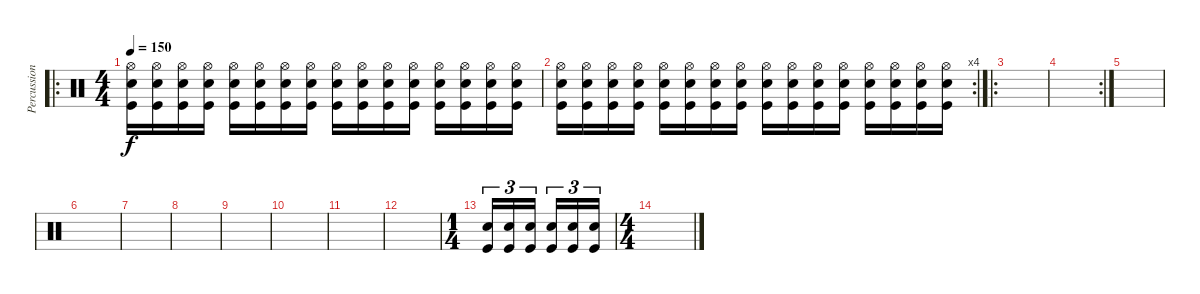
\track ("Percussion" "Percussion") {instrument percussion}
\staff {score}
\articulation defaults
\ro
\ts (4 4)
\tempo 150
\clef neutral
\ks c
("Hi-Hat (open)" "Snare (hit) 2" "Kick (hit)").16{dy f} ("Hi-Hat (open)" "Snare (hit) 2" "Kick (hit)").16 ("Hi-Hat (open)" "Snare (hit) 2" "Kick (hit)").16 ("Hi-Hat (open)" "Snare (hit) 2" "Kick (hit)").16 ("Hi-Hat (open)" "Snare (hit) 2" "Kick (hit)").16 ("Hi-Hat (open)" "Snare (hit) 2" "Kick (hit)").16 ("Hi-Hat (open)" "Snare (hit) 2" "Kick (hit)").16 ("Hi-Hat (open)" "Snare (hit) 2" "Kick (hit)").16 ("Hi-Hat (open)" "Snare (hit) 2" "Kick (hit)").16 ("Hi-Hat (open)" "Snare (hit) 2" "Kick (hit)").16 ("Hi-Hat (open)" "Snare (hit) 2" "Kick (hit)").16 ("Hi-Hat (open)" "Snare (hit) 2" "Kick (hit)").16 ("Hi-Hat (open)" "Snare (hit) 2" "Kick (hit)").16 ("Hi-Hat (open)" "Snare (hit) 2" "Kick (hit)").16 ("Hi-Hat (open)" "Snare (hit) 2" "Kick (hit)").16 ("Hi-Hat (open)" "Snare (hit) 2" "Kick (hit)").16 |
\rc 4
("Hi-Hat (open)" "Snare (hit) 2" "Kick (hit)").16 ("Hi-Hat (open)" "Snare (hit) 2" "Kick (hit)").16 ("Hi-Hat (open)" "Snare (hit) 2" "Kick (hit)").16 ("Hi-Hat (open)" "Snare (hit) 2" "Kick (hit)").16 ("Hi-Hat (open)" "Snare (hit) 2" "Kick (hit)").16 ("Hi-Hat (open)" "Snare (hit) 2" "Kick (hit)").16 ("Hi-Hat (open)" "Snare (hit) 2" "Kick (hit)").16 ("Hi-Hat (open)" "Snare (hit) 2" "Kick (hit)").16 ("Hi-Hat (open)" "Snare (hit) 2" "Kick (hit)").16 ("Hi-Hat (open)" "Snare (hit) 2" "Kick (hit)").16 ("Hi-Hat (open)" "Snare (hit) 2" "Kick (hit)").16 ("Hi-Hat (open)" "Snare (hit) 2" "Kick (hit)").16 ("Hi-Hat (open)" "Snare (hit) 2" "Kick (hit)").16 ("Hi-Hat (open)" "Snare (hit) 2" "Kick (hit)").16 ("Hi-Hat (open)" "Snare (hit) 2" "Kick (hit)").16 ("Hi-Hat (open)" "Snare (hit) 2" "Kick (hit)").16 |
\ro
|
\rc 2
|
|
|
|
|
|
|
|
|
\ts (1 4)
("Snare (hit) 2" "Kick (hit)").16{tu (3 2)} ("Snare (hit) 2" "Kick (hit)").16{tu (3 2)} ("Snare (hit) 2" "Kick (hit)").16{tu (3 2) beam splitsecondary} ("Snare (hit) 2" "Kick (hit)").16{tu (3 2)} ("Snare (hit) 2" "Kick (hit)").16{tu (3 2)} ("Snare (hit) 2" "Kick (hit)").16{tu (3 2)} |
\ts (4 4)
